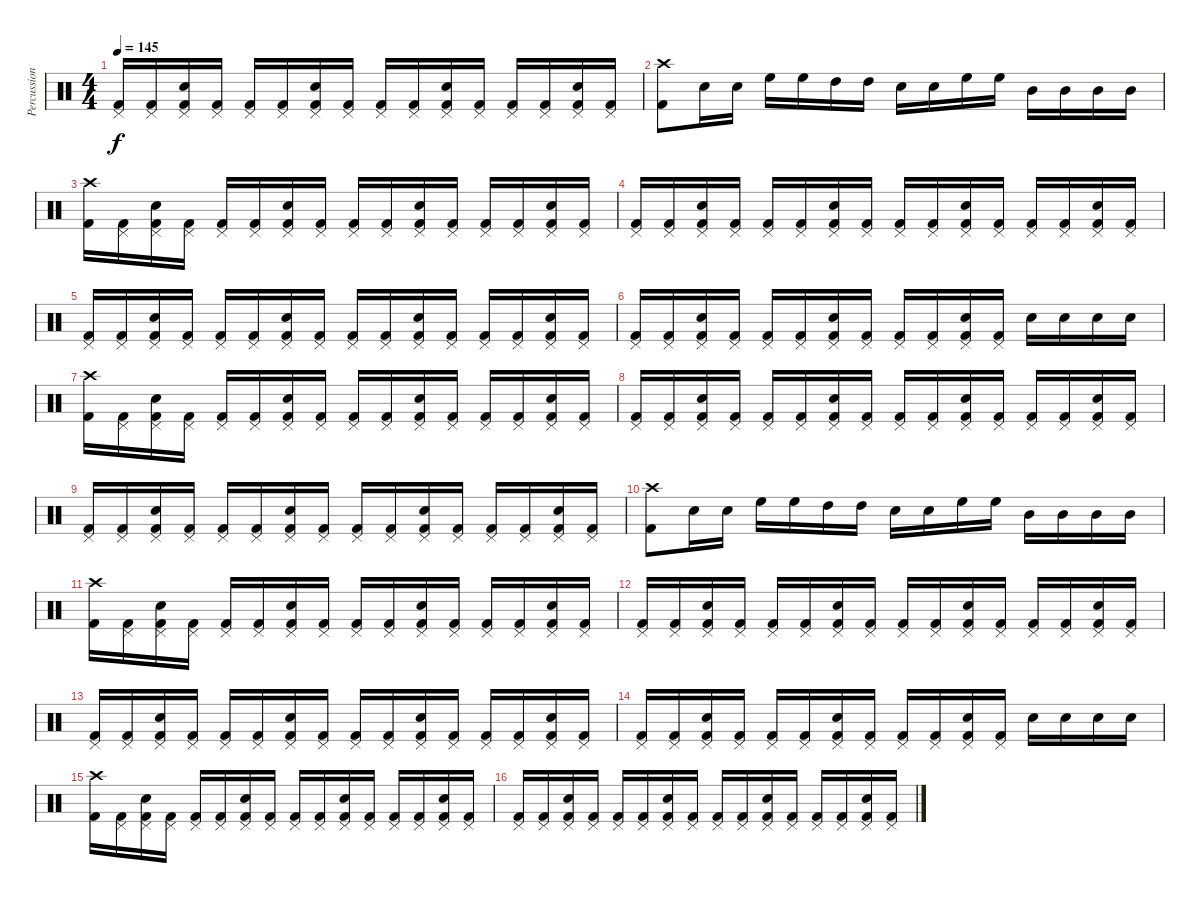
\track ("Percussion" "Percussion") {instrument percussion}
\staff {score}
\articulation defaults
\ts (4 4)
\tempo 145
\clef neutral
\ks c
("Pedal Hi-Hat (hit)" "Kick (hit) 2").16{dy f} ("Pedal Hi-Hat (hit)" "Kick (hit) 2").16 ("Pedal Hi-Hat (hit)" "Snare (hit) 2" "Kick (hit) 2").16 ("Pedal Hi-Hat (hit)" "Kick (hit) 2").16 ("Pedal Hi-Hat (hit)" "Kick (hit) 2").16 ("Pedal Hi-Hat (hit)" "Kick (hit) 2").16 ("Pedal Hi-Hat (hit)" "Snare (hit) 2" "Kick (hit) 2").16 ("Pedal Hi-Hat (hit)" "Kick (hit) 2").16 ("Pedal Hi-Hat (hit)" "Kick (hit) 2").16 ("Pedal Hi-Hat (hit)" "Kick (hit) 2").16 ("Pedal Hi-Hat (hit)" "Snare (hit) 2" "Kick (hit) 2").16 ("Pedal Hi-Hat (hit)" "Kick (hit) 2").16 ("Pedal Hi-Hat (hit)" "Kick (hit) 2").16 ("Pedal Hi-Hat (hit)" "Kick (hit) 2").16 ("Pedal Hi-Hat (hit)" "Snare (hit) 2" "Kick (hit) 2").16 ("Pedal Hi-Hat (hit)" "Kick (hit) 2").16 |
("Crash high (hit)" "Kick (hit) 2").8 "Snare (hit) 2".16 "Snare (hit) 2".16 "High Floor Tom (hit)".16 "High Floor Tom (hit)".16 "High Tom (hit)".16 "High Tom (hit)".16 "Snare (hit) 2".16 "Snare (hit) 2".16 "High Floor Tom (hit)".16 "High Floor Tom (hit)".16 "Mid Tom (hit)".16 "Mid Tom (hit)".16 "Mid Tom (hit)".16 "Mid Tom (hit)".16 |
("Crash high (hit)" "Kick (hit) 2").16 ("Pedal Hi-Hat (hit)" "Kick (hit) 2").16 ("Pedal Hi-Hat (hit)" "Snare (hit) 2" "Kick (hit) 2").16 ("Pedal Hi-Hat (hit)" "Kick (hit) 2").16 ("Pedal Hi-Hat (hit)" "Kick (hit) 2").16 ("Pedal Hi-Hat (hit)" "Kick (hit) 2").16 ("Pedal Hi-Hat (hit)" "Snare (hit) 2" "Kick (hit) 2").16 ("Pedal Hi-Hat (hit)" "Kick (hit) 2").16 ("Pedal Hi-Hat (hit)" "Kick (hit) 2").16 ("Pedal Hi-Hat (hit)" "Kick (hit) 2").16 ("Pedal Hi-Hat (hit)" "Snare (hit) 2" "Kick (hit) 2").16 ("Pedal Hi-Hat (hit)" "Kick (hit) 2").16 ("Pedal Hi-Hat (hit)" "Kick (hit) 2").16 ("Pedal Hi-Hat (hit)" "Kick (hit) 2").16 ("Pedal Hi-Hat (hit)" "Snare (hit) 2" "Kick (hit) 2").16 ("Pedal Hi-Hat (hit)" "Kick (hit) 2").16 |
("Pedal Hi-Hat (hit)" "Kick (hit) 2").16 ("Pedal Hi-Hat (hit)" "Kick (hit) 2").16 ("Pedal Hi-Hat (hit)" "Snare (hit) 2" "Kick (hit) 2").16 ("Pedal Hi-Hat (hit)" "Kick (hit) 2").16 ("Pedal Hi-Hat (hit)" "Kick (hit) 2").16 ("Pedal Hi-Hat (hit)" "Kick (hit) 2").16 ("Pedal Hi-Hat (hit)" "Snare (hit) 2" "Kick (hit) 2").16 ("Pedal Hi-Hat (hit)" "Kick (hit) 2").16 ("Pedal Hi-Hat (hit)" "Kick (hit) 2").16 ("Pedal Hi-Hat (hit)" "Kick (hit) 2").16 ("Pedal Hi-Hat (hit)" "Snare (hit) 2" "Kick (hit) 2").16 ("Pedal Hi-Hat (hit)" "Kick (hit) 2").16 ("Pedal Hi-Hat (hit)" "Kick (hit) 2").16 ("Pedal Hi-Hat (hit)" "Kick (hit) 2").16 ("Pedal Hi-Hat (hit)" "Snare (hit) 2" "Kick (hit) 2").16 ("Pedal Hi-Hat (hit)" "Kick (hit) 2").16 |
("Pedal Hi-Hat (hit)" "Kick (hit) 2").16 ("Pedal Hi-Hat (hit)" "Kick (hit) 2").16 ("Pedal Hi-Hat (hit)" "Snare (hit) 2" "Kick (hit) 2").16 ("Pedal Hi-Hat (hit)" "Kick (hit) 2").16 ("Pedal Hi-Hat (hit)" "Kick (hit) 2").16 ("Pedal Hi-Hat (hit)" "Kick (hit) 2").16 ("Pedal Hi-Hat (hit)" "Snare (hit) 2" "Kick (hit) 2").16 ("Pedal Hi-Hat (hit)" "Kick (hit) 2").16 ("Pedal Hi-Hat (hit)" "Kick (hit) 2").16 ("Pedal Hi-Hat (hit)" "Kick (hit) 2").16 ("Pedal Hi-Hat (hit)" "Snare (hit) 2" "Kick (hit) 2").16 ("Pedal Hi-Hat (hit)" "Kick (hit) 2").16 ("Pedal Hi-Hat (hit)" "Kick (hit) 2").16 ("Pedal Hi-Hat (hit)" "Kick (hit) 2").16 ("Pedal Hi-Hat (hit)" "Snare (hit) 2" "Kick (hit) 2").16 ("Pedal Hi-Hat (hit)" "Kick (hit) 2").16 |
("Pedal Hi-Hat (hit)" "Kick (hit) 2").16 ("Pedal Hi-Hat (hit)" "Kick (hit) 2").16 ("Pedal Hi-Hat (hit)" "Snare (hit) 2" "Kick (hit) 2").16 ("Pedal Hi-Hat (hit)" "Kick (hit) 2").16 ("Pedal Hi-Hat (hit)" "Kick (hit) 2").16 ("Pedal Hi-Hat (hit)" "Kick (hit) 2").16 ("Pedal Hi-Hat (hit)" "Snare (hit) 2" "Kick (hit) 2").16 ("Pedal Hi-Hat (hit)" "Kick (hit) 2").16 ("Pedal Hi-Hat (hit)" "Kick (hit) 2").16 ("Pedal Hi-Hat (hit)" "Kick (hit) 2").16 ("Pedal Hi-Hat (hit)" "Snare (hit) 2" "Kick (hit) 2").16 ("Pedal Hi-Hat (hit)" "Kick (hit) 2").16 "Snare (hit) 2".16 "Snare (hit) 2".16 "Snare (hit) 2".16 "Snare (hit) 2".16 |
("Crash high (hit)" "Kick (hit) 2").16 ("Pedal Hi-Hat (hit)" "Kick (hit) 2").16 ("Pedal Hi-Hat (hit)" "Snare (hit) 2" "Kick (hit) 2").16 ("Pedal Hi-Hat (hit)" "Kick (hit) 2").16 ("Pedal Hi-Hat (hit)" "Kick (hit) 2").16 ("Pedal Hi-Hat (hit)" "Kick (hit) 2").16 ("Pedal Hi-Hat (hit)" "Snare (hit) 2" "Kick (hit) 2").16 ("Pedal Hi-Hat (hit)" "Kick (hit) 2").16 ("Pedal Hi-Hat (hit)" "Kick (hit) 2").16 ("Pedal Hi-Hat (hit)" "Kick (hit) 2").16 ("Pedal Hi-Hat (hit)" "Snare (hit) 2" "Kick (hit) 2").16 ("Pedal Hi-Hat (hit)" "Kick (hit) 2").16 ("Pedal Hi-Hat (hit)" "Kick (hit) 2").16 ("Pedal Hi-Hat (hit)" "Kick (hit) 2").16 ("Pedal Hi-Hat (hit)" "Snare (hit) 2" "Kick (hit) 2").16 ("Pedal Hi-Hat (hit)" "Kick (hit) 2").16 |
("Pedal Hi-Hat (hit)" "Kick (hit) 2").16 ("Pedal Hi-Hat (hit)" "Kick (hit) 2").16 ("Pedal Hi-Hat (hit)" "Snare (hit) 2" "Kick (hit) 2").16 ("Pedal Hi-Hat (hit)" "Kick (hit) 2").16 ("Pedal Hi-Hat (hit)" "Kick (hit) 2").16 ("Pedal Hi-Hat (hit)" "Kick (hit) 2").16 ("Pedal Hi-Hat (hit)" "Snare (hit) 2" "Kick (hit) 2").16 ("Pedal Hi-Hat (hit)" "Kick (hit) 2").16 ("Pedal Hi-Hat (hit)" "Kick (hit) 2").16 ("Pedal Hi-Hat (hit)" "Kick (hit) 2").16 ("Pedal Hi-Hat (hit)" "Snare (hit) 2" "Kick (hit) 2").16 ("Pedal Hi-Hat (hit)" "Kick (hit) 2").16 ("Pedal Hi-Hat (hit)" "Kick (hit) 2").16 ("Pedal Hi-Hat (hit)" "Kick (hit) 2").16 ("Pedal Hi-Hat (hit)" "Snare (hit) 2" "Kick (hit) 2").16 ("Pedal Hi-Hat (hit)" "Kick (hit) 2").16 |
("Pedal Hi-Hat (hit)" "Kick (hit) 2").16 ("Pedal Hi-Hat (hit)" "Kick (hit) 2").16 ("Pedal Hi-Hat (hit)" "Snare (hit) 2" "Kick (hit) 2").16 ("Pedal Hi-Hat (hit)" "Kick (hit) 2").16 ("Pedal Hi-Hat (hit)" "Kick (hit) 2").16 ("Pedal Hi-Hat (hit)" "Kick (hit) 2").16 ("Pedal Hi-Hat (hit)" "Snare (hit) 2" "Kick (hit) 2").16 ("Pedal Hi-Hat (hit)" "Kick (hit) 2").16 ("Pedal Hi-Hat (hit)" "Kick (hit) 2").16 ("Pedal Hi-Hat (hit)" "Kick (hit) 2").16 ("Pedal Hi-Hat (hit)" "Snare (hit) 2" "Kick (hit) 2").16 ("Pedal Hi-Hat (hit)" "Kick (hit) 2").16 ("Pedal Hi-Hat (hit)" "Kick (hit) 2").16 ("Pedal Hi-Hat (hit)" "Kick (hit) 2").16 ("Pedal Hi-Hat (hit)" "Snare (hit) 2" "Kick (hit) 2").16 ("Pedal Hi-Hat (hit)" "Kick (hit) 2").16 |
("Crash high (hit)" "Kick (hit) 2").8 "Snare (hit) 2".16 "Snare (hit) 2".16 "High Floor Tom (hit)".16 "High Floor Tom (hit)".16 "High Tom (hit)".16 "High Tom (hit)".16 "Snare (hit) 2".16 "Snare (hit) 2".16 "High Floor Tom (hit)".16 "High Floor Tom (hit)".16 "Mid Tom (hit)".16 "Mid Tom (hit)".16 "Mid Tom (hit)".16 "Mid Tom (hit)".16 |
("Crash high (hit)" "Kick (hit) 2").16{volume 7} ("Pedal Hi-Hat (hit)" "Kick (hit) 2").16 ("Pedal Hi-Hat (hit)" "Snare (hit) 2" "Kick (hit) 2").16 ("Pedal Hi-Hat (hit)" "Kick (hit) 2").16 ("Pedal Hi-Hat (hit)" "Kick (hit) 2").16 ("Pedal Hi-Hat (hit)" "Kick (hit) 2").16 ("Pedal Hi-Hat (hit)" "Snare (hit) 2" "Kick (hit) 2").16 ("Pedal Hi-Hat (hit)" "Kick (hit) 2").16 ("Pedal Hi-Hat (hit)" "Kick (hit) 2").16 ("Pedal Hi-Hat (hit)" "Kick (hit) 2").16 ("Pedal Hi-Hat (hit)" "Snare (hit) 2" "Kick (hit) 2").16 ("Pedal Hi-Hat (hit)" "Kick (hit) 2").16 ("Pedal Hi-Hat (hit)" "Kick (hit) 2").16 ("Pedal Hi-Hat (hit)" "Kick (hit) 2").16 ("Pedal Hi-Hat (hit)" "Snare (hit) 2" "Kick (hit) 2").16 ("Pedal Hi-Hat (hit)" "Kick (hit) 2").16 |
("Pedal Hi-Hat (hit)" "Kick (hit) 2").16 ("Pedal Hi-Hat (hit)" "Kick (hit) 2").16 ("Pedal Hi-Hat (hit)" "Snare (hit) 2" "Kick (hit) 2").16 ("Pedal Hi-Hat (hit)" "Kick (hit) 2").16 ("Pedal Hi-Hat (hit)" "Kick (hit) 2").16 ("Pedal Hi-Hat (hit)" "Kick (hit) 2").16 ("Pedal Hi-Hat (hit)" "Snare (hit) 2" "Kick (hit) 2").16 ("Pedal Hi-Hat (hit)" "Kick (hit) 2").16 ("Pedal Hi-Hat (hit)" "Kick (hit) 2").16 ("Pedal Hi-Hat (hit)" "Kick (hit) 2").16 ("Pedal Hi-Hat (hit)" "Snare (hit) 2" "Kick (hit) 2").16 ("Pedal Hi-Hat (hit)" "Kick (hit) 2").16 ("Pedal Hi-Hat (hit)" "Kick (hit) 2").16 ("Pedal Hi-Hat (hit)" "Kick (hit) 2").16 ("Pedal Hi-Hat (hit)" "Snare (hit) 2" "Kick (hit) 2").16 ("Pedal Hi-Hat (hit)" "Kick (hit) 2").16 |
("Pedal Hi-Hat (hit)" "Kick (hit) 2").16 ("Pedal Hi-Hat (hit)" "Kick (hit) 2").16 ("Pedal Hi-Hat (hit)" "Snare (hit) 2" "Kick (hit) 2").16 ("Pedal Hi-Hat (hit)" "Kick (hit) 2").16 ("Pedal Hi-Hat (hit)" "Kick (hit) 2").16 ("Pedal Hi-Hat (hit)" "Kick (hit) 2").16 ("Pedal Hi-Hat (hit)" "Snare (hit) 2" "Kick (hit) 2").16 ("Pedal Hi-Hat (hit)" "Kick (hit) 2").16 ("Pedal Hi-Hat (hit)" "Kick (hit) 2").16 ("Pedal Hi-Hat (hit)" "Kick (hit) 2").16 ("Pedal Hi-Hat (hit)" "Snare (hit) 2" "Kick (hit) 2").16 ("Pedal Hi-Hat (hit)" "Kick (hit) 2").16 ("Pedal Hi-Hat (hit)" "Kick (hit) 2").16 ("Pedal Hi-Hat (hit)" "Kick (hit) 2").16 ("Pedal Hi-Hat (hit)" "Snare (hit) 2" "Kick (hit) 2").16 ("Pedal Hi-Hat (hit)" "Kick (hit) 2").16 |
("Pedal Hi-Hat (hit)" "Kick (hit) 2").16 ("Pedal Hi-Hat (hit)" "Kick (hit) 2").16 ("Pedal Hi-Hat (hit)" "Snare (hit) 2" "Kick (hit) 2").16 ("Pedal Hi-Hat (hit)" "Kick (hit) 2").16 ("Pedal Hi-Hat (hit)" "Kick (hit) 2").16 ("Pedal Hi-Hat (hit)" "Kick (hit) 2").16 ("Pedal Hi-Hat (hit)" "Snare (hit) 2" "Kick (hit) 2").16 ("Pedal Hi-Hat (hit)" "Kick (hit) 2").16 ("Pedal Hi-Hat (hit)" "Kick (hit) 2").16 ("Pedal Hi-Hat (hit)" "Kick (hit) 2").16 ("Pedal Hi-Hat (hit)" "Snare (hit) 2" "Kick (hit) 2").16 ("Pedal Hi-Hat (hit)" "Kick (hit) 2").16 "Snare (hit) 2".16 "Snare (hit) 2".16 "Snare (hit) 2".16 "Snare (hit) 2".16 |
("Crash high (hit)" "Kick (hit) 2").16{volume 1} ("Pedal Hi-Hat (hit)" "Kick (hit) 2").16 ("Pedal Hi-Hat (hit)" "Snare (hit) 2" "Kick (hit) 2").16 ("Pedal Hi-Hat (hit)" "Kick (hit) 2").16 ("Pedal Hi-Hat (hit)" "Kick (hit) 2").16 ("Pedal Hi-Hat (hit)" "Kick (hit) 2").16 ("Pedal Hi-Hat (hit)" "Snare (hit) 2" "Kick (hit) 2").16 ("Pedal Hi-Hat (hit)" "Kick (hit) 2").16 ("Pedal Hi-Hat (hit)" "Kick (hit) 2").16 ("Pedal Hi-Hat (hit)" "Kick (hit) 2").16 ("Pedal Hi-Hat (hit)" "Snare (hit) 2" "Kick (hit) 2").16 ("Pedal Hi-Hat (hit)" "Kick (hit) 2").16 ("Pedal Hi-Hat (hit)" "Kick (hit) 2").16 ("Pedal Hi-Hat (hit)" "Kick (hit) 2").16 ("Pedal Hi-Hat (hit)" "Snare (hit) 2" "Kick (hit) 2").16 ("Pedal Hi-Hat (hit)" "Kick (hit) 2").16 |
("Pedal Hi-Hat (hit)" "Kick (hit) 2").16 ("Pedal Hi-Hat (hit)" "Kick (hit) 2").16 ("Pedal Hi-Hat (hit)" "Snare (hit) 2" "Kick (hit) 2").16 ("Pedal Hi-Hat (hit)" "Kick (hit) 2").16 ("Pedal Hi-Hat (hit)" "Kick (hit) 2").16 ("Pedal Hi-Hat (hit)" "Kick (hit) 2").16 ("Pedal Hi-Hat (hit)" "Snare (hit) 2" "Kick (hit) 2").16 ("Pedal Hi-Hat (hit)" "Kick (hit) 2").16 ("Pedal Hi-Hat (hit)" "Kick (hit) 2").16 ("Pedal Hi-Hat (hit)" "Kick (hit) 2").16 ("Pedal Hi-Hat (hit)" "Snare (hit) 2" "Kick (hit) 2").16 ("Pedal Hi-Hat (hit)" "Kick (hit) 2").16 ("Pedal Hi-Hat (hit)" "Kick (hit) 2").16 ("Pedal Hi-Hat (hit)" "Kick (hit) 2").16 ("Pedal Hi-Hat (hit)" "Snare (hit) 2" "Kick (hit) 2").16 ("Pedal Hi-Hat (hit)" "Kick (hit) 2").16
